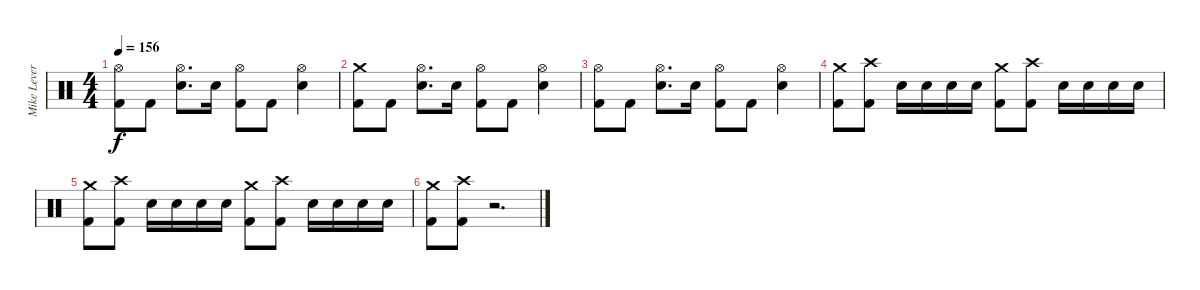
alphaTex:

\track ("Mike Leverence - Drums" "Mike Lever") {instrument percussion}
\staff {score}
\articulation defaults
\ts (4 4)
\tempo 156
\clef neutral
\ks c
("Hi-Hat (open)" "Kick (hit) 2").8{dy f} "Kick (hit) 2".8 ("Hi-Hat (open)" "Electric Snare (hit)").8{d} "Electric Snare (hit)".16 ("Hi-Hat (open)" "Kick (hit) 2").8 "Kick (hit) 2".8 ("Hi-Hat (open)" "Electric Snare (hit)").4 |
("Crash medium (hit)" "Kick (hit) 2").8 "Kick (hit) 2".8 ("Hi-Hat (open)" "Electric Snare (hit)").8{d} "Electric Snare (hit)".16 ("Hi-Hat (open)" "Kick (hit) 2").8 "Kick (hit) 2".8 ("Hi-Hat (open)" "Electric Snare (hit)").4 |
("Hi-Hat (open)" "Kick (hit) 2").8 "Kick (hit) 2".8 ("Hi-Hat (open)" "Electric Snare (hit)").8{d} "Electric Snare (hit)".16 ("Hi-Hat (open)" "Kick (hit) 2").8 "Kick (hit) 2".8 ("Hi-Hat (open)" "Electric Snare (hit)").4 |
("Crash medium (hit)" "Kick (hit) 2").8 ("Crash high (hit)" "Kick (hit) 2").8 "Electric Snare (hit)".16 "Electric Snare (hit)".16 "Electric Snare (hit)".16 "Electric Snare (hit)".16 ("Crash medium (hit)" "Kick (hit) 2").8 ("Crash high (hit)" "Kick (hit) 2").8 "Electric Snare (hit)".16 "Electric Snare (hit)".16 "Electric Snare (hit)".16 "Electric Snare (hit)".16 |
("Crash medium (hit)" "Kick (hit) 2").8 ("Crash high (hit)" "Kick (hit) 2").8 "Electric Snare (hit)".16 "Electric Snare (hit)".16 "Electric Snare (hit)".16 "Electric Snare (hit)".16 ("Crash medium (hit)" "Kick (hit) 2").8 ("Crash high (hit)" "Kick (hit) 2").8 "Electric Snare (hit)".16 "Electric Snare (hit)".16 "Electric Snare (hit)".16 "Electric Snare (hit)".16 |
("Crash medium (hit)" "Kick (hit) 2").8 ("Crash high (hit)" "Kick (hit) 2").8 r.2{d}
